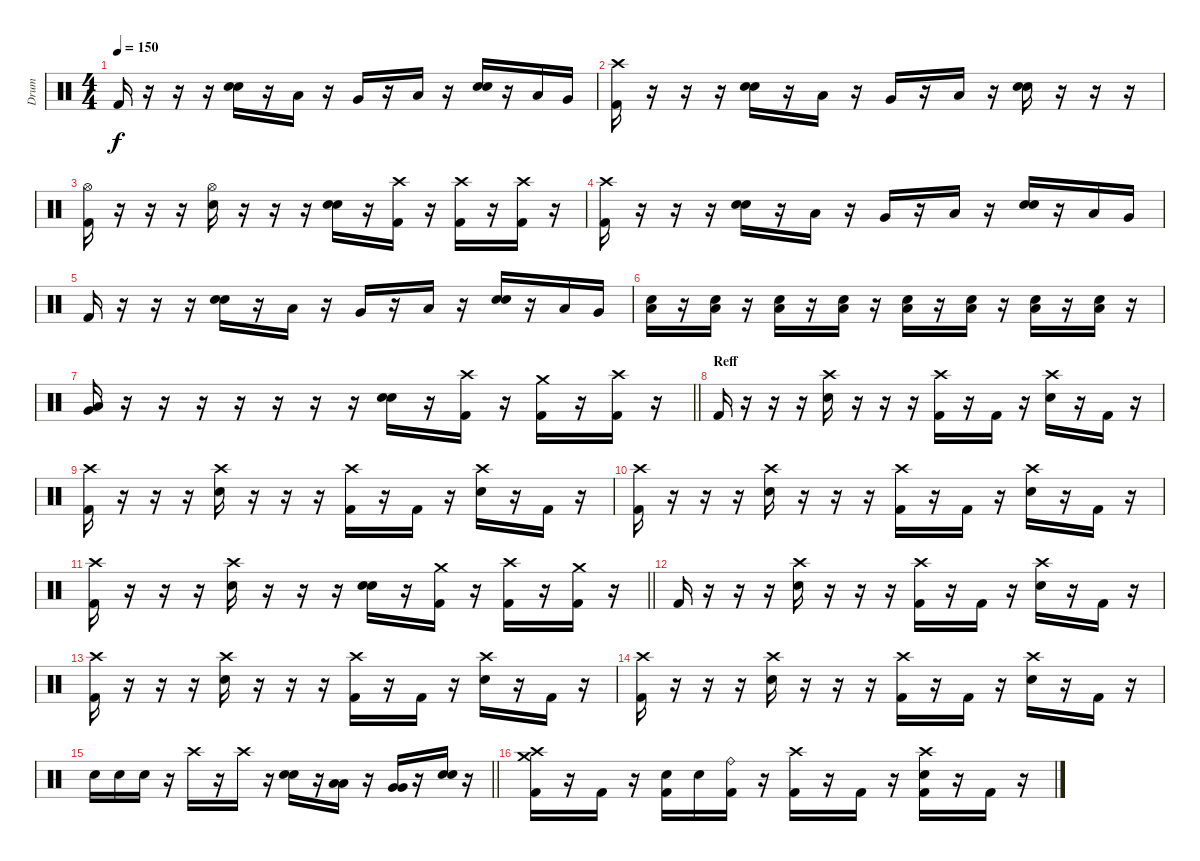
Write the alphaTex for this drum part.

\track ("Drum" "Drum") {instrument percussion}
\staff {score}
\articulation defaults
\ts (4 4)
\tempo 150
\clef neutral
\ks c "Kick (hit) 2".16{dy f}
r.16 r.16 r.16 ("Electric Snare (hit)" "Electric Snare (hit)").16 r.16 "Low Floor Tom (hit)".16 r.16 "Very Low Tom (hit)".16 r.16 "Low Floor Tom (hit)".16 r.16 ("Electric Snare (hit)" "Electric Snare (hit)").16 r.16 "Low Floor Tom (hit)".16 "Very Low Tom (hit)".16 |
("Crash high (hit)" "Kick (hit) 2").16 r.16 r.16 r.16 ("Electric Snare (hit)" "Electric Snare (hit)").16 r.16 "Low Floor Tom (hit)".16 r.16 "Very Low Tom (hit)".16 r.16 "Low Floor Tom (hit)".16 r.16 ("Electric Snare (hit)" "Electric Snare (hit)").16 r.16 r.16 r.16 |
("Hi-Hat (open)" "Kick (hit) 2").16 r.16 r.16 r.16 ("Hi-Hat (open)" "Electric Snare (hit)").16 r.16 r.16 r.16 ("Electric Snare (hit)" "Electric Snare (hit)").16 r.16 ("Crash high (hit)" "Kick (hit) 2").16 r.16 ("Crash high (hit)" "Kick (hit) 2").16 r.16 ("Crash high (hit)" "Kick (hit) 2").16 r.16 |
("Crash high (hit)" "Kick (hit) 2").16 r.16 r.16 r.16 ("Electric Snare (hit)" "Electric Snare (hit)").16 r.16 "Low Floor Tom (hit)".16 r.16 "Very Low Tom (hit)".16 r.16 "Low Floor Tom (hit)".16 r.16 ("Electric Snare (hit)" "Electric Snare (hit)").16 r.16 "Low Floor Tom (hit)".16 "Very Low Tom (hit)".16 |
"Kick (hit) 2".16 r.16 r.16 r.16 ("Electric Snare (hit)" "Electric Snare (hit)").16 r.16 "Low Floor Tom (hit)".16 r.16 "Very Low Tom (hit)".16 r.16 "Low Floor Tom (hit)".16 r.16 ("Electric Snare (hit)" "Electric Snare (hit)").16 r.16 "Low Floor Tom (hit)".16 "Very Low Tom (hit)".16 |
("Electric Snare (hit)" "Low Floor Tom (hit)").16 r.16 ("Electric Snare (hit)" "Low Floor Tom (hit)").16 r.16 ("Electric Snare (hit)" "Low Floor Tom (hit)").16 r.16 ("Electric Snare (hit)" "Low Floor Tom (hit)").16 r.16 ("Electric Snare (hit)" "Low Floor Tom (hit)").16 r.16 ("Electric Snare (hit)" "Low Floor Tom (hit)").16 r.16 ("Electric Snare (hit)" "Low Floor Tom (hit)").16 r.16 ("Electric Snare (hit)" "Low Floor Tom (hit)").16 r.16 |
\barLineRight lightlight
("Very Low Tom (hit)" "Low Floor Tom (hit)").16 r.16 r.16 r.16 r.16 r.16 r.16 r.16 ("Electric Snare (hit)" "Electric Snare (hit)").16 r.16 ("Crash high (hit)" "Kick (hit) 2").16 r.16 ("Crash medium (hit)" "Kick (hit) 2").16 r.16 ("Crash high (hit)" "Kick (hit) 2").16 r.16 |
\section ("" "Reff")
"Kick (hit) 2".16 r.16 r.16 r.16 ("Crash high (hit)" "Electric Snare (hit)").16 r.16 r.16 r.16 ("Crash high (hit)" "Kick (hit) 2").16 r.16 "Kick (hit) 2".16 r.16 ("Crash high (hit)" "Electric Snare (hit)").16 r.16 "Kick (hit) 2".16 r.16 |
("Crash high (hit)" "Kick (hit) 2").16 r.16 r.16 r.16 ("Crash high (hit)" "Electric Snare (hit)").16 r.16 r.16 r.16 ("Crash high (hit)" "Kick (hit) 2").16 r.16 "Kick (hit) 2".16 r.16 ("Crash high (hit)" "Electric Snare (hit)").16 r.16 "Kick (hit) 2".16 r.16 |
("Crash high (hit)" "Kick (hit) 2").16 r.16 r.16 r.16 ("Crash high (hit)" "Electric Snare (hit)").16 r.16 r.16 r.16 ("Crash high (hit)" "Kick (hit) 2").16 r.16 "Kick (hit) 2".16 r.16 ("Crash high (hit)" "Electric Snare (hit)").16 r.16 "Kick (hit) 2".16 r.16 |
\barLineRight lightlight
("Crash high (hit)" "Kick (hit) 2").16 r.16 r.16 r.16 ("Crash high (hit)" "Electric Snare (hit)").16 r.16 r.16 r.16 ("Electric Snare (hit)" "Electric Snare (hit)").16 r.16 ("Crash medium (hit)" "Kick (hit) 2").16 r.16 ("Crash high (hit)" "Kick (hit) 2").16 r.16 ("Crash medium (hit)" "Kick (hit) 2").16 r.16 |
"Kick (hit) 2".16 r.16 r.16 r.16 ("Crash high (hit)" "Electric Snare (hit)").16 r.16 r.16 r.16 ("Crash high (hit)" "Kick (hit) 2").16 r.16 "Kick (hit) 2".16 r.16 ("Crash high (hit)" "Electric Snare (hit)").16 r.16 "Kick (hit) 2".16 r.16 |
("Crash high (hit)" "Kick (hit) 2").16 r.16 r.16 r.16 ("Crash high (hit)" "Electric Snare (hit)").16 r.16 r.16 r.16 ("Crash high (hit)" "Kick (hit) 2").16 r.16 "Kick (hit) 2".16 r.16 ("Crash high (hit)" "Electric Snare (hit)").16 r.16 "Kick (hit) 2".16 r.16 |
("Crash high (hit)" "Kick (hit) 2").16 r.16 r.16 r.16 ("Crash high (hit)" "Electric Snare (hit)").16 r.16 r.16 r.16 ("Crash high (hit)" "Kick (hit) 2").16 r.16 "Kick (hit) 2".16 r.16 ("Crash high (hit)" "Electric Snare (hit)").16 r.16 "Kick (hit) 2".16 r.16 |
\barLineRight lightlight "Electric Snare (hit)".16 "Electric Snare (hit)".16 "Electric Snare (hit)".16
r.16 "Crash high (hit)".16 r.16 "Crash high (hit)".16 r.16 ("Electric Snare (hit)" "Electric Snare (hit)").16 r.16 ("Low Floor Tom (hit)" "Low Floor Tom (hit)").16 r.16 ("Very Low Tom (hit)" "Very Low Tom (hit)").16 r.16 ("Electric Snare (hit)" "Electric Snare (hit)").16 r.16 |
("Crash high (hit)" "Crash medium (hit)" "Kick (hit) 2").16 r.16 "Kick (hit) 2".16 r.16 ("Electric Snare (hit)" "Kick (hit) 2").16 "Electric Snare (hit)".16 ("Ride (bell)" "Kick (hit) 2").16 r.16 ("Crash high (hit)" "Kick (hit) 2").16 r.16 "Kick (hit) 2".16 r.16 ("Crash high (hit)" "Electric Snare (hit)" "Kick (hit) 2").16 r.16 "Kick (hit) 2".16 r.16
